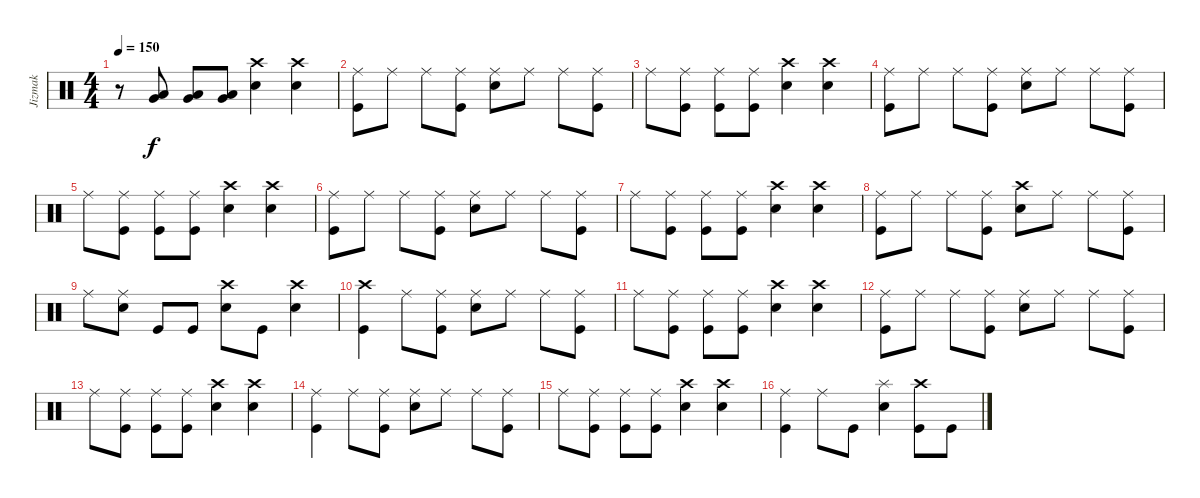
\track ("Jizmak" "Jizmak") {instrument percussion}
\staff {score}
\articulation defaults
\ts (4 4)
\tempo 150
\clef neutral
\ks c
r.8{dy f} ("Low Tom (hit)" "Very Low Tom (hit)").8 ("Low Tom (hit)" "Very Low Tom (hit)").8 ("Low Tom (hit)" "Very Low Tom (hit)").8 ("Crash high (hit)" "Snare (hit) 2").4 ("Crash high (hit)" "Snare (hit) 2").4 |
("Ride (middle)" "Kick (hit)").8 "Ride (middle)".8 "Ride (middle)".8 ("Ride (middle)" "Kick (hit)").8 ("Ride (middle)" "Snare (hit) 2").8 "Ride (middle)".8 "Ride (middle)".8 ("Ride (middle)" "Kick (hit)").8 |
"Ride (middle)".8 ("Ride (middle)" "Kick (hit)").8 ("Ride (middle)" "Kick (hit)").8 ("Ride (middle)" "Kick (hit)").8 ("Crash high (hit)" "Snare (hit) 2").4 ("Crash high (hit)" "Snare (hit) 2").4 |
("Ride (middle)" "Kick (hit)").8 "Ride (middle)".8 "Ride (middle)".8 ("Ride (middle)" "Kick (hit)").8 ("Ride (middle)" "Snare (hit) 2").8 "Ride (middle)".8 "Ride (middle)".8 ("Ride (middle)" "Kick (hit)").8 |
"Ride (middle)".8 ("Ride (middle)" "Kick (hit)").8 ("Ride (middle)" "Kick (hit)").8 ("Ride (middle)" "Kick (hit)").8 ("Crash high (hit)" "Snare (hit) 2").4 ("Crash high (hit)" "Snare (hit) 2").4 |
("Ride (middle)" "Kick (hit)").8 "Ride (middle)".8 "Ride (middle)".8 ("Ride (middle)" "Kick (hit)").8 ("Ride (middle)" "Snare (hit) 2").8 "Ride (middle)".8 "Ride (middle)".8 ("Ride (middle)" "Kick (hit)").8 |
"Ride (middle)".8 ("Ride (middle)" "Kick (hit)").8 ("Ride (middle)" "Kick (hit)").8 ("Ride (middle)" "Kick (hit)").8 ("Crash high (hit)" "Snare (hit) 2").4 ("Crash high (hit)" "Snare (hit) 2").4 |
("Ride (middle)" "Kick (hit)").8 "Ride (middle)".8 "Ride (middle)".8 ("Ride (middle)" "Kick (hit)").8 ("Crash high (hit)" "Snare (hit) 2").8 "Ride (middle)".8 "Ride (middle)".8 ("Ride (middle)" "Kick (hit)").8 |
"Ride (middle)".8 ("Ride (middle)" "Snare (hit) 2").8 "Kick (hit)".8 "Kick (hit)".8 ("Crash high (hit)" "Snare (hit) 2").8 "Kick (hit)".8 ("Crash high (hit)" "Snare (hit) 2").4 |
("Crash high (hit)" "Kick (hit)").4 "Ride (middle)".8 ("Ride (middle)" "Kick (hit)").8 ("Ride (middle)" "Snare (hit) 2").8 "Ride (middle)".8 "Ride (middle)".8 ("Ride (middle)" "Kick (hit)").8 |
"Ride (middle)".8 ("Ride (middle)" "Kick (hit)").8 ("Ride (middle)" "Kick (hit)").8 ("Ride (middle)" "Kick (hit)").8 ("Crash high (hit)" "Snare (hit) 2").4 ("Crash high (hit)" "Snare (hit) 2").4 |
("Ride (middle)" "Kick (hit)").8 "Ride (middle)".8 "Ride (middle)".8 ("Ride (middle)" "Kick (hit)").8 ("Ride (middle)" "Snare (hit) 2").8 "Ride (middle)".8 "Ride (middle)".8 ("Ride (middle)" "Kick (hit)").8 |
"Ride (middle)".8 ("Ride (middle)" "Kick (hit)").8 ("Ride (middle)" "Kick (hit)").8 ("Ride (middle)" "Kick (hit)").8 ("Crash high (hit)" "Snare (hit) 2").4 ("Crash high (hit)" "Snare (hit) 2").4 |
("Ride (middle)" "Kick (hit)").4 "Ride (middle)".8 ("Ride (middle)" "Kick (hit)").8 ("Ride (middle)" "Snare (hit) 2").8 "Ride (middle)".8 "Ride (middle)".8 ("Ride (middle)" "Kick (hit)").8 |
"Ride (middle)".8 ("Ride (middle)" "Kick (hit)").8 ("Ride (middle)" "Kick (hit)").8 ("Ride (middle)" "Kick (hit)").8 ("Crash high (hit)" "Snare (hit) 2").4 ("Crash high (hit)" "Snare (hit) 2").4 |
("Ride (middle)" "Kick (hit)").4 "Ride (middle)".8 "Kick (hit)".8 ("Splash (hit)" "Snare (hit) 2").4 ("Crash high (hit)" "Kick (hit)").8 "Kick (hit)".8
